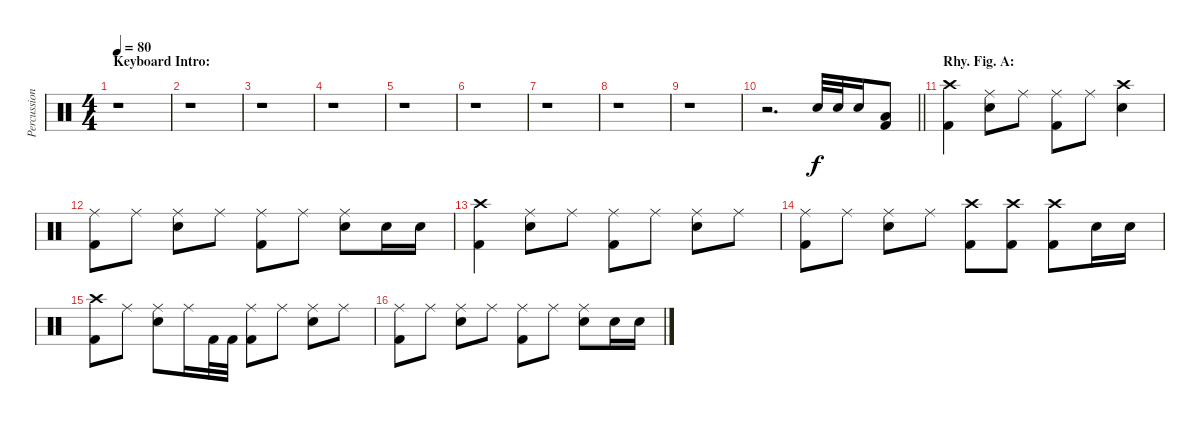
\track ("Percussion" "Percussion") {instrument percussion}
\staff {score}
\articulation defaults
\ts (4 4)
\section ("" "Keyboard Intro:")
\tempo 80
\clef neutral
\ks c
r.1{dy f} |
r.1 |
r.1 |
r.1 |
r.1 |
r.1 |
r.1 |
r.1 |
r.1 |
\barLineRight lightlight
r.2{d} "Electric Snare (hit)".32 "Electric Snare (hit)".32 "Electric Snare (hit)".16 ("Low Floor Tom (hit)" "Kick (hit) 2").8 |
\section ("" "Rhy. Fig. A:")
("Crash high (hit)" "Kick (hit) 2").4 ("Ride (middle)" "Electric Snare (hit)").8 "Ride (middle)".8 ("Ride (middle)" "Kick (hit) 2").8 "Ride (middle)".8 ("Crash high (hit)" "Electric Snare (hit)").4 |
("Ride (middle)" "Kick (hit) 2").8 "Ride (middle)".8 ("Ride (middle)" "Electric Snare (hit)").8 "Ride (middle)".8 ("Ride (middle)" "Kick (hit) 2").8 "Ride (middle)".8 ("Ride (middle)" "Electric Snare (hit)").8 "Electric Snare (hit)".16 "Electric Snare (hit)".16 |
("Crash high (hit)" "Kick (hit) 2").4 ("Ride (middle)" "Electric Snare (hit)").8 "Ride (middle)".8 ("Ride (middle)" "Kick (hit) 2").8 "Ride (middle)".8 ("Ride (middle)" "Electric Snare (hit)").8 "Ride (middle)".8 |
("Ride (middle)" "Kick (hit) 2").8 "Ride (middle)".8 ("Ride (middle)" "Electric Snare (hit)").8 "Ride (middle)".8 ("Crash high (hit)" "Kick (hit) 2").8 ("Crash high (hit)" "Kick (hit) 2").8 ("Crash high (hit)" "Kick (hit) 2").8 "Electric Snare (hit)".16 "Electric Snare (hit)".16 |
("Crash high (hit)" "Kick (hit) 2").8 "Ride (middle)".8 ("Ride (middle)" "Electric Snare (hit)").8 "Ride (middle)".16 "Kick (hit) 2".32 "Kick (hit) 2".32 ("Ride (middle)" "Kick (hit) 2").8 "Ride (middle)".8 ("Ride (middle)" "Electric Snare (hit)").8 "Ride (middle)".8 |
("Ride (middle)" "Kick (hit) 2").8 "Ride (middle)".8 ("Ride (middle)" "Electric Snare (hit)").8 "Ride (middle)".8 ("Ride (middle)" "Kick (hit) 2").8 "Ride (middle)".8 ("Ride (middle)" "Electric Snare (hit)").8 "Electric Snare (hit)".16 "Electric Snare (hit)".16
